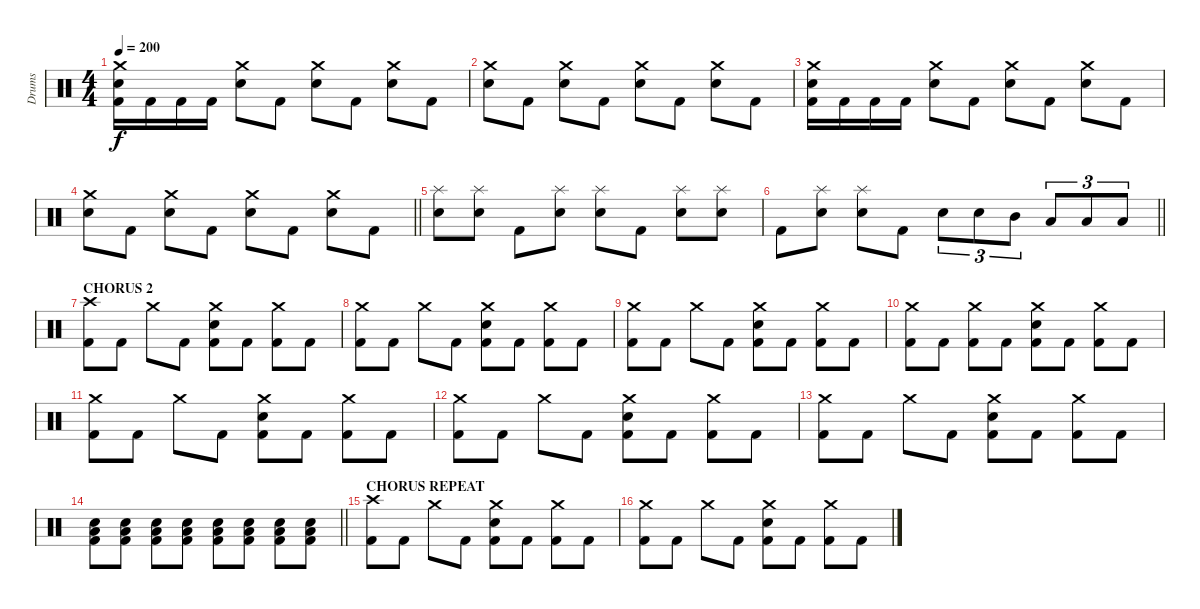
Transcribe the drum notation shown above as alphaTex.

\track ("Drums" "Drums") {instrument percussion}
\staff {score}
\articulation defaults
\ts (4 4)
\tempo 200
\clef neutral
\ks c
("Crash medium (hit)" "Electric Snare (hit)" "Kick (hit) 2").16{dy f} "Kick (hit) 2".16 "Kick (hit) 2".16 "Kick (hit) 2".16 ("Crash medium (hit)" "Electric Snare (hit)").8 "Kick (hit) 2".8 ("Crash medium (hit)" "Electric Snare (hit)").8 "Kick (hit) 2".8 ("Crash medium (hit)" "Electric Snare (hit)").8 "Kick (hit) 2".8 |
("Crash medium (hit)" "Electric Snare (hit)").8 "Kick (hit) 2".8 ("Crash medium (hit)" "Electric Snare (hit)").8 "Kick (hit) 2".8 ("Crash medium (hit)" "Electric Snare (hit)").8 "Kick (hit) 2".8 ("Crash medium (hit)" "Electric Snare (hit)").8 "Kick (hit) 2".8 |
("Crash medium (hit)" "Electric Snare (hit)" "Kick (hit) 2").16 "Kick (hit) 2".16 "Kick (hit) 2".16 "Kick (hit) 2".16 ("Crash medium (hit)" "Electric Snare (hit)").8 "Kick (hit) 2".8 ("Crash medium (hit)" "Electric Snare (hit)").8 "Kick (hit) 2".8 ("Crash medium (hit)" "Electric Snare (hit)").8 "Kick (hit) 2".8 |
\barLineRight lightlight
("Crash medium (hit)" "Electric Snare (hit)").8 "Kick (hit) 2".8 ("Crash medium (hit)" "Electric Snare (hit)").8 "Kick (hit) 2".8 ("Crash medium (hit)" "Electric Snare (hit)").8 "Kick (hit) 2".8 ("Crash medium (hit)" "Electric Snare (hit)").8 "Kick (hit) 2".8 |
("Splash (hit)" "Electric Snare (hit)").8 ("Splash (hit)" "Electric Snare (hit)").8 "Kick (hit) 2".8 ("Splash (hit)" "Electric Snare (hit)").8 ("Splash (hit)" "Electric Snare (hit)").8 "Kick (hit) 2".8 ("Splash (hit)" "Electric Snare (hit)").8 ("Splash (hit)" "Electric Snare (hit)").8 |
\barLineRight lightlight "Kick (hit) 2".8
("Splash (hit)" "Electric Snare (hit)").8 ("Splash (hit)" "Electric Snare (hit)").8 "Kick (hit) 2".8 "Electric Snare (hit)".8{tu (3 2)} "Electric Snare (hit)".8{tu (3 2)} "Mid Tom (hit)".8{tu (3 2)} "Low Tom (hit)".8{tu (3 2)} "Low Floor Tom (hit)".8{tu (3 2)} "Low Floor Tom (hit)".8{tu (3 2)} |
\section ("" "CHORUS 2")
("Crash high (hit)" "Kick (hit) 2").8 "Kick (hit) 2".8 "Crash medium (hit)".8 "Kick (hit) 2".8 ("Crash medium (hit)" "Electric Snare (hit)" "Kick (hit) 2").8 "Kick (hit) 2".8 ("Crash medium (hit)" "Kick (hit) 2").8 "Kick (hit) 2".8 |
("Crash medium (hit)" "Kick (hit) 2").8 "Kick (hit) 2".8 "Crash medium (hit)".8 "Kick (hit) 2".8 ("Crash medium (hit)" "Electric Snare (hit)" "Kick (hit) 2").8 "Kick (hit) 2".8 ("Crash medium (hit)" "Kick (hit) 2").8 "Kick (hit) 2".8 |
("Crash medium (hit)" "Kick (hit) 2").8 "Kick (hit) 2".8 "Crash medium (hit)".8 "Kick (hit) 2".8 ("Crash medium (hit)" "Electric Snare (hit)" "Kick (hit) 2").8 "Kick (hit) 2".8 ("Crash medium (hit)" "Kick (hit) 2").8 "Kick (hit) 2".8 |
("Crash medium (hit)" "Kick (hit) 2").8 "Kick (hit) 2".8 ("Crash medium (hit)" "Kick (hit) 2").8 "Kick (hit) 2".8 ("Crash medium (hit)" "Electric Snare (hit)" "Kick (hit) 2").8 "Kick (hit) 2".8 ("Crash medium (hit)" "Kick (hit) 2").8 "Kick (hit) 2".8 |
("Crash medium (hit)" "Kick (hit) 2").8 "Kick (hit) 2".8 "Crash medium (hit)".8 "Kick (hit) 2".8 ("Crash medium (hit)" "Electric Snare (hit)" "Kick (hit) 2").8 "Kick (hit) 2".8 ("Crash medium (hit)" "Kick (hit) 2").8 "Kick (hit) 2".8 |
("Crash medium (hit)" "Kick (hit) 2").8 "Kick (hit) 2".8 "Crash medium (hit)".8 "Kick (hit) 2".8 ("Crash medium (hit)" "Electric Snare (hit)" "Kick (hit) 2").8 "Kick (hit) 2".8 ("Crash medium (hit)" "Kick (hit) 2").8 "Kick (hit) 2".8 |
("Crash medium (hit)" "Kick (hit) 2").8 "Kick (hit) 2".8 "Crash medium (hit)".8 "Kick (hit) 2".8 ("Crash medium (hit)" "Electric Snare (hit)" "Kick (hit) 2").8 "Kick (hit) 2".8 ("Crash medium (hit)" "Kick (hit) 2").8 "Kick (hit) 2".8 |
\barLineRight lightlight
("Electric Snare (hit)" "Low Floor Tom (hit)" "Kick (hit) 2").8 ("Electric Snare (hit)" "Low Floor Tom (hit)" "Kick (hit) 2").8 ("Electric Snare (hit)" "Low Floor Tom (hit)" "Kick (hit) 2").8 ("Electric Snare (hit)" "Low Floor Tom (hit)" "Kick (hit) 2").8 ("Electric Snare (hit)" "Low Floor Tom (hit)" "Kick (hit) 2").8 ("Electric Snare (hit)" "Low Floor Tom (hit)" "Kick (hit) 2").8 ("Electric Snare (hit)" "Low Floor Tom (hit)" "Kick (hit) 2").8 ("Electric Snare (hit)" "Low Floor Tom (hit)" "Kick (hit) 2").8 |
\section ("" "CHORUS REPEAT")
("Crash high (hit)" "Kick (hit) 2").8 "Kick (hit) 2".8 "Crash medium (hit)".8 "Kick (hit) 2".8 ("Crash medium (hit)" "Electric Snare (hit)" "Kick (hit) 2").8 "Kick (hit) 2".8 ("Crash medium (hit)" "Kick (hit) 2").8 "Kick (hit) 2".8 |
("Crash medium (hit)" "Kick (hit) 2").8 "Kick (hit) 2".8 "Crash medium (hit)".8 "Kick (hit) 2".8 ("Crash medium (hit)" "Electric Snare (hit)" "Kick (hit) 2").8 "Kick (hit) 2".8 ("Crash medium (hit)" "Kick (hit) 2").8 "Kick (hit) 2".8
